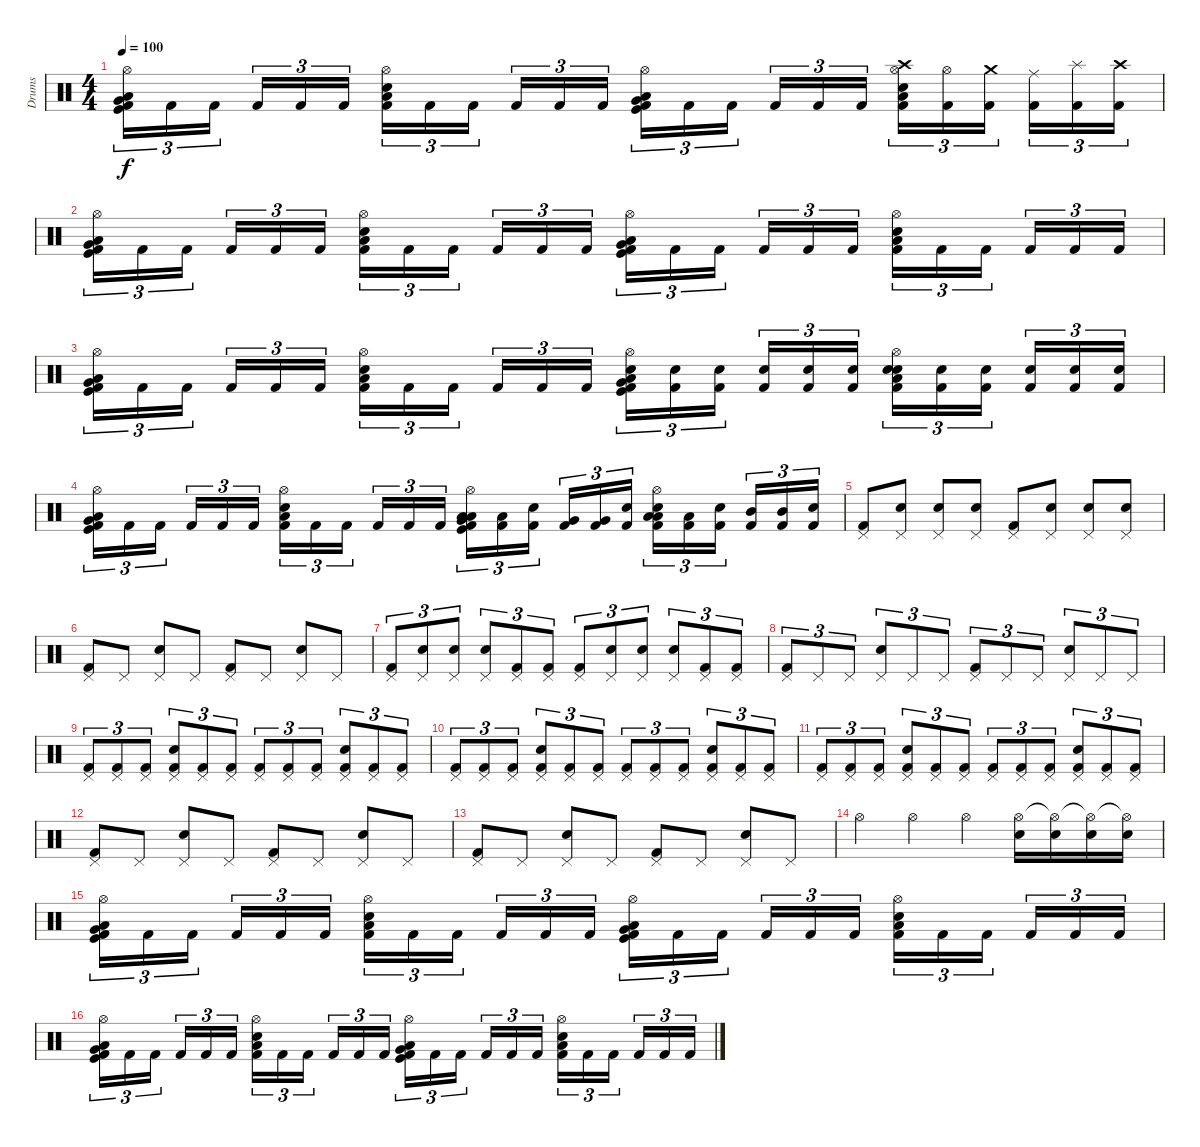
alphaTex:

\track ("Drums" "Drums") {instrument percussion}
\staff {score}
\articulation defaults
\ts (4 4)
\tempo 100
\clef neutral
\ks c
("Hi-Hat (open)" "Very Low Tom (hit)" "Low Floor Tom (hit)" "Kick (hit) 2" "Kick (hit)").16{tu (3 2) dy f} "Kick (hit) 2".16{tu (3 2)} "Kick (hit) 2".16{tu (3 2)} "Kick (hit) 2".16{tu (3 2)} "Kick (hit) 2".16{tu (3 2)} "Kick (hit) 2".16{tu (3 2)} ("Hi-Hat (open)" "Snare (hit) 2" "Low Floor Tom (hit)" "Kick (hit) 2").16{tu (3 2)} "Kick (hit) 2".16{tu (3 2)} "Kick (hit) 2".16{tu (3 2)} "Kick (hit) 2".16{tu (3 2)} "Kick (hit) 2".16{tu (3 2)} "Kick (hit) 2".16{tu (3 2)} ("Hi-Hat (open)" "Very Low Tom (hit)" "Low Floor Tom (hit)" "Kick (hit) 2" "Kick (hit)").16{tu (3 2)} "Kick (hit) 2".16{tu (3 2)} "Kick (hit) 2".16{tu (3 2)} "Kick (hit) 2".16{tu (3 2)} "Kick (hit) 2".16{tu (3 2)} "Kick (hit) 2".16{tu (3 2)} ("Crash high (hit)" "Hi-Hat (open)" "Snare (hit) 2" "Low Floor Tom (hit)" "Kick (hit) 2").16{tu (3 2)} ("Hi-Hat (open)" "Kick (hit) 2").16{tu (3 2)} ("Crash medium (hit)" "Kick (hit) 2").16{tu (3 2)} ("Ride (middle)" "Kick (hit) 2").16{tu (3 2)} ("Splash (hit)" "Kick (hit) 2").16{tu (3 2)} ("Crash high (hit)" "Kick (hit) 2").16{tu (3 2)} |
("Hi-Hat (open)" "Very Low Tom (hit)" "Low Floor Tom (hit)" "Kick (hit) 2" "Kick (hit)").16{tu (3 2)} "Kick (hit) 2".16{tu (3 2)} "Kick (hit) 2".16{tu (3 2)} "Kick (hit) 2".16{tu (3 2)} "Kick (hit) 2".16{tu (3 2)} "Kick (hit) 2".16{tu (3 2)} ("Hi-Hat (open)" "Snare (hit) 2" "Low Floor Tom (hit)" "Kick (hit) 2").16{tu (3 2)} "Kick (hit) 2".16{tu (3 2)} "Kick (hit) 2".16{tu (3 2)} "Kick (hit) 2".16{tu (3 2)} "Kick (hit) 2".16{tu (3 2)} "Kick (hit) 2".16{tu (3 2)} ("Hi-Hat (open)" "Very Low Tom (hit)" "Low Floor Tom (hit)" "Kick (hit) 2" "Kick (hit)").16{tu (3 2)} "Kick (hit) 2".16{tu (3 2)} "Kick (hit) 2".16{tu (3 2)} "Kick (hit) 2".16{tu (3 2)} "Kick (hit) 2".16{tu (3 2)} "Kick (hit) 2".16{tu (3 2)} ("Hi-Hat (open)" "Snare (hit) 2" "Low Floor Tom (hit)" "Kick (hit) 2").16{tu (3 2)} "Kick (hit) 2".16{tu (3 2)} "Kick (hit) 2".16{tu (3 2)} "Kick (hit) 2".16{tu (3 2)} "Kick (hit) 2".16{tu (3 2)} "Kick (hit) 2".16{tu (3 2)} |
("Hi-Hat (open)" "Very Low Tom (hit)" "Low Floor Tom (hit)" "Kick (hit) 2" "Kick (hit)").16{tu (3 2)} "Kick (hit) 2".16{tu (3 2)} "Kick (hit) 2".16{tu (3 2)} "Kick (hit) 2".16{tu (3 2)} "Kick (hit) 2".16{tu (3 2)} "Kick (hit) 2".16{tu (3 2)} ("Hi-Hat (open)" "Snare (hit) 2" "Low Floor Tom (hit)" "Kick (hit) 2").16{tu (3 2)} "Kick (hit) 2".16{tu (3 2)} "Kick (hit) 2".16{tu (3 2)} "Kick (hit) 2".16{tu (3 2)} "Kick (hit) 2".16{tu (3 2)} "Kick (hit) 2".16{tu (3 2)} ("Electric Snare (hit)" "Hi-Hat (open)" "Very Low Tom (hit)" "Low Floor Tom (hit)" "Kick (hit) 2" "Kick (hit)").16{tu (3 2)} ("Electric Snare (hit)" "Kick (hit) 2").16{tu (3 2)} ("Electric Snare (hit)" "Kick (hit) 2").16{tu (3 2)} ("Electric Snare (hit)" "Kick (hit) 2").16{tu (3 2)} ("Electric Snare (hit)" "Kick (hit) 2").16{tu (3 2)} ("Electric Snare (hit)" "Kick (hit) 2").16{tu (3 2)} ("Electric Snare (hit)" "Hi-Hat (open)" "Snare (hit) 2" "Low Floor Tom (hit)" "Kick (hit) 2").16{tu (3 2)} ("Electric Snare (hit)" "Kick (hit) 2").16{tu (3 2)} ("Electric Snare (hit)" "Kick (hit) 2").16{tu (3 2)} ("Electric Snare (hit)" "Kick (hit) 2").16{tu (3 2)} ("Electric Snare (hit)" "Kick (hit) 2").16{tu (3 2)} ("Electric Snare (hit)" "Kick (hit) 2").16{tu (3 2)} |
("Hi-Hat (open)" "Very Low Tom (hit)" "Low Floor Tom (hit)" "Kick (hit) 2" "Kick (hit)").16{tu (3 2)} "Kick (hit) 2".16{tu (3 2)} "Kick (hit) 2".16{tu (3 2)} "Kick (hit) 2".16{tu (3 2)} "Kick (hit) 2".16{tu (3 2)} "Kick (hit) 2".16{tu (3 2)} ("Hi-Hat (open)" "Snare (hit) 2" "Low Floor Tom (hit)" "Kick (hit) 2").16{tu (3 2)} "Kick (hit) 2".16{tu (3 2)} "Kick (hit) 2".16{tu (3 2)} "Kick (hit) 2".16{tu (3 2)} "Kick (hit) 2".16{tu (3 2)} "Kick (hit) 2".16{tu (3 2)} ("Low Tom (hit)" "Hi-Hat (open)" "Very Low Tom (hit)" "Low Floor Tom (hit)" "Kick (hit) 2" "Kick (hit)").16{tu (3 2)} ("Low Tom (hit)" "Kick (hit) 2").16{tu (3 2)} ("Electric Snare (hit)" "Kick (hit) 2").16{tu (3 2)} ("Very Low Tom (hit)" "Kick (hit) 2").16{tu (3 2)} ("Very Low Tom (hit)" "Kick (hit) 2").16{tu (3 2)} ("Electric Snare (hit)" "Kick (hit) 2").16{tu (3 2)} ("Low Floor Tom (hit)" "Hi-Hat (open)" "Snare (hit) 2" "Low Floor Tom (hit)" "Kick (hit) 2").16{tu (3 2)} ("Low Floor Tom (hit)" "Kick (hit) 2").16{tu (3 2)} ("Electric Snare (hit)" "Kick (hit) 2").16{tu (3 2)} ("Mid Tom (hit)" "Kick (hit) 2").16{tu (3 2)} ("Mid Tom (hit)" "Kick (hit) 2").16{tu (3 2)} ("Electric Snare (hit)" "Kick (hit) 2").16{tu (3 2)} |
("Pedal Hi-Hat (hit)" "Kick (hit) 2").8 ("Pedal Hi-Hat (hit)" "Electric Snare (hit)").8 ("Pedal Hi-Hat (hit)" "Snare (hit) 2").8 ("Pedal Hi-Hat (hit)" "Electric Snare (hit)").8 ("Pedal Hi-Hat (hit)" "Kick (hit) 2").8 ("Pedal Hi-Hat (hit)" "Electric Snare (hit)").8 ("Pedal Hi-Hat (hit)" "Snare (hit) 2").8 ("Pedal Hi-Hat (hit)" "Electric Snare (hit)").8 |
("Pedal Hi-Hat (hit)" "Kick (hit) 2").8 "Pedal Hi-Hat (hit)".8 ("Pedal Hi-Hat (hit)" "Snare (hit) 2").8 "Pedal Hi-Hat (hit)".8 ("Pedal Hi-Hat (hit)" "Kick (hit) 2").8 "Pedal Hi-Hat (hit)".8 ("Pedal Hi-Hat (hit)" "Snare (hit) 2").8 "Pedal Hi-Hat (hit)".8 |
("Pedal Hi-Hat (hit)" "Kick (hit) 2").8{tu (3 2)} ("Pedal Hi-Hat (hit)" "Electric Snare (hit)").8{tu (3 2)} ("Pedal Hi-Hat (hit)" "Electric Snare (hit)").8{tu (3 2)} ("Pedal Hi-Hat (hit)" "Snare (hit) 2").8{tu (3 2)} ("Pedal Hi-Hat (hit)" "Kick (hit) 2").8{tu (3 2)} ("Pedal Hi-Hat (hit)" "Kick (hit) 2").8{tu (3 2)} ("Pedal Hi-Hat (hit)" "Kick (hit) 2").8{tu (3 2)} ("Pedal Hi-Hat (hit)" "Electric Snare (hit)").8{tu (3 2)} ("Pedal Hi-Hat (hit)" "Electric Snare (hit)").8{tu (3 2)} ("Pedal Hi-Hat (hit)" "Snare (hit) 2").8{tu (3 2)} ("Pedal Hi-Hat (hit)" "Kick (hit) 2").8{tu (3 2)} ("Pedal Hi-Hat (hit)" "Kick (hit) 2").8{tu (3 2)} |
("Pedal Hi-Hat (hit)" "Kick (hit) 2").8{tu (3 2)} "Pedal Hi-Hat (hit)".8{tu (3 2)} "Pedal Hi-Hat (hit)".8{tu (3 2)} ("Pedal Hi-Hat (hit)" "Snare (hit) 2").8{tu (3 2)} "Pedal Hi-Hat (hit)".8{tu (3 2)} "Pedal Hi-Hat (hit)".8{tu (3 2)} ("Pedal Hi-Hat (hit)" "Kick (hit) 2").8{tu (3 2)} "Pedal Hi-Hat (hit)".8{tu (3 2)} "Pedal Hi-Hat (hit)".8{tu (3 2)} ("Pedal Hi-Hat (hit)" "Snare (hit) 2").8{tu (3 2)} "Pedal Hi-Hat (hit)".8{tu (3 2)} "Pedal Hi-Hat (hit)".8{tu (3 2)} |
("Pedal Hi-Hat (hit)" "Kick (hit) 2").8{tu (3 2)} ("Pedal Hi-Hat (hit)" "Kick (hit) 2").8{tu (3 2)} ("Pedal Hi-Hat (hit)" "Kick (hit) 2").8{tu (3 2)} ("Pedal Hi-Hat (hit)" "Snare (hit) 2" "Kick (hit) 2").8{tu (3 2)} ("Pedal Hi-Hat (hit)" "Kick (hit) 2").8{tu (3 2)} ("Pedal Hi-Hat (hit)" "Kick (hit) 2").8{tu (3 2)} ("Pedal Hi-Hat (hit)" "Kick (hit) 2").8{tu (3 2)} ("Pedal Hi-Hat (hit)" "Kick (hit) 2").8{tu (3 2)} ("Pedal Hi-Hat (hit)" "Kick (hit) 2").8{tu (3 2)} ("Pedal Hi-Hat (hit)" "Snare (hit) 2" "Kick (hit) 2").8{tu (3 2)} ("Pedal Hi-Hat (hit)" "Kick (hit) 2").8{tu (3 2)} ("Pedal Hi-Hat (hit)" "Kick (hit) 2").8{tu (3 2)} |
("Pedal Hi-Hat (hit)" "Kick (hit) 2").8{tu (3 2)} ("Pedal Hi-Hat (hit)" "Kick (hit) 2").8{tu (3 2)} ("Pedal Hi-Hat (hit)" "Kick (hit) 2").8{tu (3 2)} ("Pedal Hi-Hat (hit)" "Snare (hit) 2" "Kick (hit) 2").8{tu (3 2)} ("Pedal Hi-Hat (hit)" "Kick (hit) 2").8{tu (3 2)} ("Pedal Hi-Hat (hit)" "Kick (hit) 2").8{tu (3 2)} ("Pedal Hi-Hat (hit)" "Kick (hit) 2").8{tu (3 2)} ("Pedal Hi-Hat (hit)" "Kick (hit) 2").8{tu (3 2)} ("Pedal Hi-Hat (hit)" "Kick (hit) 2").8{tu (3 2)} ("Pedal Hi-Hat (hit)" "Snare (hit) 2" "Kick (hit) 2").8{tu (3 2)} ("Pedal Hi-Hat (hit)" "Kick (hit) 2").8{tu (3 2)} ("Pedal Hi-Hat (hit)" "Kick (hit) 2").8{tu (3 2)} |
("Pedal Hi-Hat (hit)" "Kick (hit) 2").8{tu (3 2)} ("Pedal Hi-Hat (hit)" "Kick (hit) 2").8{tu (3 2)} ("Pedal Hi-Hat (hit)" "Kick (hit) 2").8{tu (3 2)} ("Pedal Hi-Hat (hit)" "Snare (hit) 2" "Kick (hit) 2").8{tu (3 2)} ("Pedal Hi-Hat (hit)" "Kick (hit) 2").8{tu (3 2)} ("Pedal Hi-Hat (hit)" "Kick (hit) 2").8{tu (3 2)} ("Pedal Hi-Hat (hit)" "Kick (hit) 2").8{tu (3 2)} ("Pedal Hi-Hat (hit)" "Kick (hit) 2").8{tu (3 2)} ("Pedal Hi-Hat (hit)" "Kick (hit) 2").8{tu (3 2)} ("Pedal Hi-Hat (hit)" "Snare (hit) 2" "Kick (hit) 2").8{tu (3 2)} ("Pedal Hi-Hat (hit)" "Kick (hit) 2").8{tu (3 2)} ("Pedal Hi-Hat (hit)" "Kick (hit) 2").8{tu (3 2)} |
("Pedal Hi-Hat (hit)" "Kick (hit) 2").8 "Pedal Hi-Hat (hit)".8 ("Pedal Hi-Hat (hit)" "Snare (hit) 2").8 "Pedal Hi-Hat (hit)".8 ("Pedal Hi-Hat (hit)" "Kick (hit) 2").8 "Pedal Hi-Hat (hit)".8 ("Pedal Hi-Hat (hit)" "Snare (hit) 2").8 "Pedal Hi-Hat (hit)".8 |
("Pedal Hi-Hat (hit)" "Kick (hit) 2").8 "Pedal Hi-Hat (hit)".8 ("Pedal Hi-Hat (hit)" "Snare (hit) 2").8 "Pedal Hi-Hat (hit)".8 ("Pedal Hi-Hat (hit)" "Kick (hit) 2").8 "Pedal Hi-Hat (hit)".8 ("Pedal Hi-Hat (hit)" "Snare (hit) 2").8 "Pedal Hi-Hat (hit)".8 |
"Hi-Hat (open)".4 "Hi-Hat (open)".4 "Hi-Hat (open)".4 ("Hi-Hat (open)" "Snare (hit) 2").16 ("Hi-Hat (open)"{t} "Snare (hit) 2").16 ("Hi-Hat (open)"{t} "Snare (hit) 2").16 ("Hi-Hat (open)"{t} "Snare (hit) 2").16 |
("Hi-Hat (open)" "Very Low Tom (hit)" "Low Floor Tom (hit)" "Kick (hit) 2" "Kick (hit)").16{tu (3 2)} "Kick (hit) 2".16{tu (3 2)} "Kick (hit) 2".16{tu (3 2)} "Kick (hit) 2".16{tu (3 2)} "Kick (hit) 2".16{tu (3 2)} "Kick (hit) 2".16{tu (3 2)} ("Hi-Hat (open)" "Snare (hit) 2" "Low Floor Tom (hit)" "Kick (hit) 2").16{tu (3 2)} "Kick (hit) 2".16{tu (3 2)} "Kick (hit) 2".16{tu (3 2)} "Kick (hit) 2".16{tu (3 2)} "Kick (hit) 2".16{tu (3 2)} "Kick (hit) 2".16{tu (3 2)} ("Hi-Hat (open)" "Very Low Tom (hit)" "Low Floor Tom (hit)" "Kick (hit) 2" "Kick (hit)").16{tu (3 2)} "Kick (hit) 2".16{tu (3 2)} "Kick (hit) 2".16{tu (3 2)} "Kick (hit) 2".16{tu (3 2)} "Kick (hit) 2".16{tu (3 2)} "Kick (hit) 2".16{tu (3 2)} ("Hi-Hat (open)" "Snare (hit) 2" "Low Floor Tom (hit)" "Kick (hit) 2").16{tu (3 2)} "Kick (hit) 2".16{tu (3 2)} "Kick (hit) 2".16{tu (3 2)} "Kick (hit) 2".16{tu (3 2)} "Kick (hit) 2".16{tu (3 2)} "Kick (hit) 2".16{tu (3 2)} |
("Hi-Hat (open)" "Very Low Tom (hit)" "Low Floor Tom (hit)" "Kick (hit) 2" "Kick (hit)").16{tu (3 2)} "Kick (hit) 2".16{tu (3 2)} "Kick (hit) 2".16{tu (3 2)} "Kick (hit) 2".16{tu (3 2)} "Kick (hit) 2".16{tu (3 2)} "Kick (hit) 2".16{tu (3 2)} ("Hi-Hat (open)" "Snare (hit) 2" "Low Floor Tom (hit)" "Kick (hit) 2").16{tu (3 2)} "Kick (hit) 2".16{tu (3 2)} "Kick (hit) 2".16{tu (3 2)} "Kick (hit) 2".16{tu (3 2)} "Kick (hit) 2".16{tu (3 2)} "Kick (hit) 2".16{tu (3 2)} ("Hi-Hat (open)" "Very Low Tom (hit)" "Low Floor Tom (hit)" "Kick (hit) 2" "Kick (hit)").16{tu (3 2)} "Kick (hit) 2".16{tu (3 2)} "Kick (hit) 2".16{tu (3 2)} "Kick (hit) 2".16{tu (3 2)} "Kick (hit) 2".16{tu (3 2)} "Kick (hit) 2".16{tu (3 2)} ("Hi-Hat (open)" "Snare (hit) 2" "Low Floor Tom (hit)" "Kick (hit) 2").16{tu (3 2)} "Kick (hit) 2".16{tu (3 2)} "Kick (hit) 2".16{tu (3 2)} "Kick (hit) 2".16{tu (3 2)} "Kick (hit) 2".16{tu (3 2)} "Kick (hit) 2".16{tu (3 2)}
